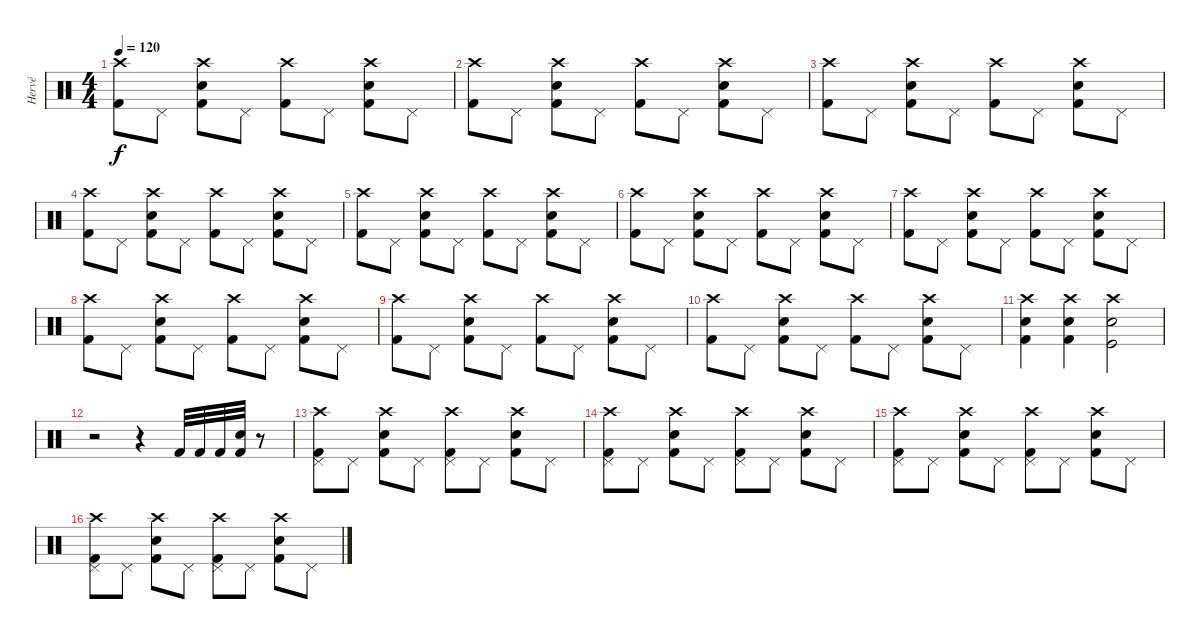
\track ("Hervé" "Hervé") {instrument percussion}
\staff {score}
\articulation defaults
\ts (4 4)
\tempo 120
\clef neutral
\ks c
("Crash high (hit)" "Kick (hit) 2").8{dy f} "Pedal Hi-Hat (hit)".8 ("Crash high (hit)" "Electric Snare (hit)" "Kick (hit) 2").8 "Pedal Hi-Hat (hit)".8 ("Crash high (hit)" "Kick (hit) 2").8 "Pedal Hi-Hat (hit)".8 ("Crash high (hit)" "Electric Snare (hit)" "Kick (hit) 2").8 "Pedal Hi-Hat (hit)".8 |
("Crash high (hit)" "Kick (hit) 2").8 "Pedal Hi-Hat (hit)".8 ("Crash high (hit)" "Electric Snare (hit)" "Kick (hit) 2").8 "Pedal Hi-Hat (hit)".8 ("Crash high (hit)" "Kick (hit) 2").8 "Pedal Hi-Hat (hit)".8 ("Crash high (hit)" "Electric Snare (hit)" "Kick (hit) 2").8 "Pedal Hi-Hat (hit)".8 |
("Crash high (hit)" "Kick (hit) 2").8 "Pedal Hi-Hat (hit)".8 ("Crash high (hit)" "Electric Snare (hit)" "Kick (hit) 2").8 "Pedal Hi-Hat (hit)".8 ("Crash high (hit)" "Kick (hit) 2").8 "Pedal Hi-Hat (hit)".8 ("Crash high (hit)" "Electric Snare (hit)" "Kick (hit) 2").8 "Pedal Hi-Hat (hit)".8 |
("Crash high (hit)" "Kick (hit) 2").8 "Pedal Hi-Hat (hit)".8 ("Crash high (hit)" "Electric Snare (hit)" "Kick (hit) 2").8 "Pedal Hi-Hat (hit)".8 ("Crash high (hit)" "Kick (hit) 2").8 "Pedal Hi-Hat (hit)".8 ("Crash high (hit)" "Electric Snare (hit)" "Kick (hit) 2").8 "Pedal Hi-Hat (hit)".8 |
("Crash high (hit)" "Kick (hit) 2").8 "Pedal Hi-Hat (hit)".8 ("Crash high (hit)" "Electric Snare (hit)" "Kick (hit) 2").8 "Pedal Hi-Hat (hit)".8 ("Crash high (hit)" "Kick (hit) 2").8 "Pedal Hi-Hat (hit)".8 ("Crash high (hit)" "Electric Snare (hit)" "Kick (hit) 2").8 "Pedal Hi-Hat (hit)".8 |
("Crash high (hit)" "Kick (hit) 2").8 "Pedal Hi-Hat (hit)".8 ("Crash high (hit)" "Electric Snare (hit)" "Kick (hit) 2").8 "Pedal Hi-Hat (hit)".8 ("Crash high (hit)" "Kick (hit) 2").8 "Pedal Hi-Hat (hit)".8 ("Crash high (hit)" "Electric Snare (hit)" "Kick (hit) 2").8 "Pedal Hi-Hat (hit)".8 |
("Crash high (hit)" "Kick (hit) 2").8 "Pedal Hi-Hat (hit)".8 ("Crash high (hit)" "Electric Snare (hit)" "Kick (hit) 2").8 "Pedal Hi-Hat (hit)".8 ("Crash high (hit)" "Kick (hit) 2").8 "Pedal Hi-Hat (hit)".8 ("Crash high (hit)" "Electric Snare (hit)" "Kick (hit) 2").8 "Pedal Hi-Hat (hit)".8 |
("Crash high (hit)" "Kick (hit) 2").8 "Pedal Hi-Hat (hit)".8 ("Crash high (hit)" "Electric Snare (hit)" "Kick (hit) 2").8 "Pedal Hi-Hat (hit)".8 ("Crash high (hit)" "Kick (hit) 2").8 "Pedal Hi-Hat (hit)".8 ("Crash high (hit)" "Electric Snare (hit)" "Kick (hit) 2").8 "Pedal Hi-Hat (hit)".8 |
("Crash high (hit)" "Kick (hit) 2").8 "Pedal Hi-Hat (hit)".8 ("Crash high (hit)" "Electric Snare (hit)" "Kick (hit) 2").8 "Pedal Hi-Hat (hit)".8 ("Crash high (hit)" "Kick (hit) 2").8 "Pedal Hi-Hat (hit)".8 ("Crash high (hit)" "Electric Snare (hit)" "Kick (hit) 2").8 "Pedal Hi-Hat (hit)".8 |
("Crash high (hit)" "Kick (hit) 2").8 "Pedal Hi-Hat (hit)".8 ("Crash high (hit)" "Electric Snare (hit)" "Kick (hit) 2").8 "Pedal Hi-Hat (hit)".8 ("Crash high (hit)" "Kick (hit) 2").8 "Pedal Hi-Hat (hit)".8 ("Crash high (hit)" "Electric Snare (hit)" "Kick (hit) 2").8 "Pedal Hi-Hat (hit)".8 |
("Crash high (hit)" "Kick (hit) 2" "Electric Snare (hit)").4 ("Crash high (hit)" "Electric Snare (hit)" "Kick (hit) 2").4 ("Crash high (hit)" "Kick (hit)" "Electric Snare (hit)").2 |
r.2 r.4 "Kick (hit) 2".32 "Kick (hit) 2".32 "Kick (hit) 2".32 ("Electric Snare (hit)" "Kick (hit) 2").32 r.8 |
("Crash high (hit)" "Pedal Hi-Hat (hit)" "Kick (hit) 2").8 "Pedal Hi-Hat (hit)".8 ("Crash high (hit)" "Electric Snare (hit)" "Kick (hit) 2").8 "Pedal Hi-Hat (hit)".8 ("Crash high (hit)" "Pedal Hi-Hat (hit)" "Kick (hit) 2").8 "Pedal Hi-Hat (hit)".8 ("Crash high (hit)" "Electric Snare (hit)" "Kick (hit) 2").8 "Pedal Hi-Hat (hit)".8 |
("Crash high (hit)" "Pedal Hi-Hat (hit)" "Kick (hit) 2").8 "Pedal Hi-Hat (hit)".8 ("Crash high (hit)" "Electric Snare (hit)" "Kick (hit) 2").8 "Pedal Hi-Hat (hit)".8 ("Crash high (hit)" "Pedal Hi-Hat (hit)" "Kick (hit) 2").8 "Pedal Hi-Hat (hit)".8 ("Crash high (hit)" "Electric Snare (hit)" "Kick (hit) 2").8 "Pedal Hi-Hat (hit)".8 |
("Crash high (hit)" "Pedal Hi-Hat (hit)" "Kick (hit) 2").8 "Pedal Hi-Hat (hit)".8 ("Crash high (hit)" "Electric Snare (hit)" "Kick (hit) 2").8 "Pedal Hi-Hat (hit)".8 ("Crash high (hit)" "Pedal Hi-Hat (hit)" "Kick (hit) 2").8 "Pedal Hi-Hat (hit)".8 ("Crash high (hit)" "Electric Snare (hit)" "Kick (hit) 2").8 "Pedal Hi-Hat (hit)".8 |
("Crash high (hit)" "Pedal Hi-Hat (hit)" "Kick (hit) 2").8 "Pedal Hi-Hat (hit)".8 ("Crash high (hit)" "Electric Snare (hit)" "Kick (hit) 2").8 "Pedal Hi-Hat (hit)".8 ("Crash high (hit)" "Pedal Hi-Hat (hit)" "Kick (hit) 2").8 "Pedal Hi-Hat (hit)".8 ("Crash high (hit)" "Electric Snare (hit)" "Kick (hit) 2").8 "Pedal Hi-Hat (hit)".8
